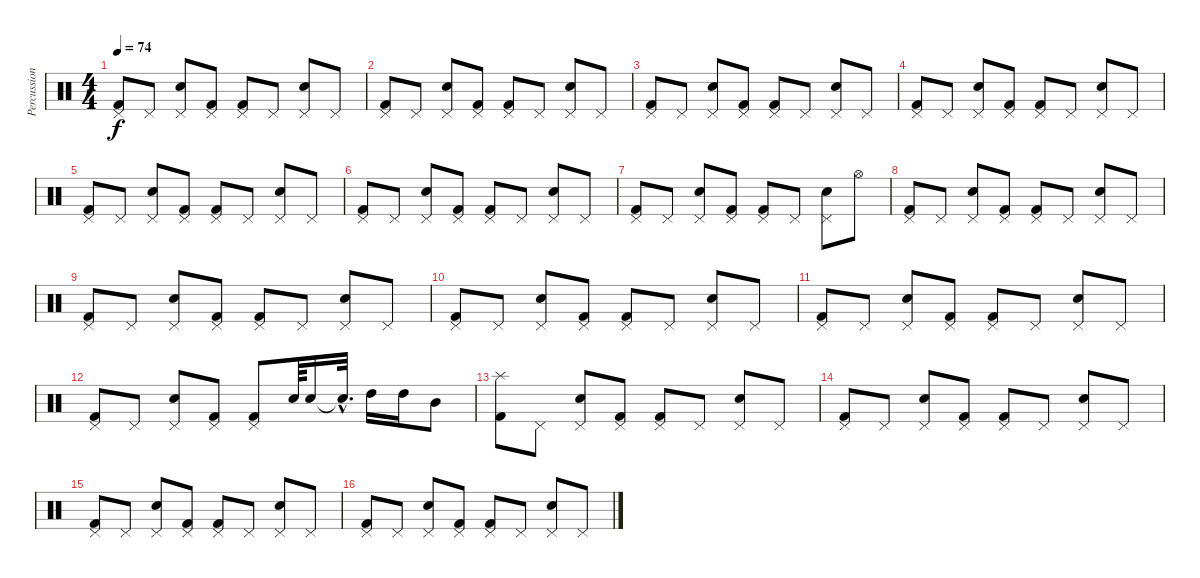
\track ("Percussion" "Percussion") {instrument percussion}
\staff {score}
\articulation defaults
\ts (4 4)
\tempo 74
\clef neutral
\ks c
("Pedal Hi-Hat (hit)" "Kick (hit) 2").8{dy f} "Pedal Hi-Hat (hit)".8 ("Pedal Hi-Hat (hit)" "Snare (hit) 2").8 ("Pedal Hi-Hat (hit)" "Kick (hit) 2").8 ("Pedal Hi-Hat (hit)" "Kick (hit) 2").8 "Pedal Hi-Hat (hit)".8 ("Pedal Hi-Hat (hit)" "Snare (hit) 2").8 "Pedal Hi-Hat (hit)".8 |
("Pedal Hi-Hat (hit)" "Kick (hit) 2").8 "Pedal Hi-Hat (hit)".8 ("Pedal Hi-Hat (hit)" "Snare (hit) 2").8 ("Pedal Hi-Hat (hit)" "Kick (hit) 2").8 ("Pedal Hi-Hat (hit)" "Kick (hit) 2").8 "Pedal Hi-Hat (hit)".8 ("Pedal Hi-Hat (hit)" "Snare (hit) 2").8 "Pedal Hi-Hat (hit)".8 |
("Pedal Hi-Hat (hit)" "Kick (hit) 2").8 "Pedal Hi-Hat (hit)".8 ("Pedal Hi-Hat (hit)" "Snare (hit) 2").8 ("Pedal Hi-Hat (hit)" "Kick (hit) 2").8 ("Pedal Hi-Hat (hit)" "Kick (hit) 2").8 "Pedal Hi-Hat (hit)".8 ("Pedal Hi-Hat (hit)" "Snare (hit) 2").8 "Pedal Hi-Hat (hit)".8 |
("Pedal Hi-Hat (hit)" "Kick (hit) 2").8 "Pedal Hi-Hat (hit)".8 ("Pedal Hi-Hat (hit)" "Snare (hit) 2").8 ("Pedal Hi-Hat (hit)" "Kick (hit) 2").8 ("Pedal Hi-Hat (hit)" "Kick (hit) 2").8 "Pedal Hi-Hat (hit)".8 ("Pedal Hi-Hat (hit)" "Snare (hit) 2").8 "Pedal Hi-Hat (hit)".8 |
("Pedal Hi-Hat (hit)" "Kick (hit) 2").8 "Pedal Hi-Hat (hit)".8 ("Pedal Hi-Hat (hit)" "Snare (hit) 2").8 ("Pedal Hi-Hat (hit)" "Kick (hit) 2").8 ("Pedal Hi-Hat (hit)" "Kick (hit) 2").8 "Pedal Hi-Hat (hit)".8 ("Pedal Hi-Hat (hit)" "Snare (hit) 2").8 "Pedal Hi-Hat (hit)".8 |
("Pedal Hi-Hat (hit)" "Kick (hit) 2").8 "Pedal Hi-Hat (hit)".8 ("Pedal Hi-Hat (hit)" "Snare (hit) 2").8 ("Pedal Hi-Hat (hit)" "Kick (hit) 2").8 ("Pedal Hi-Hat (hit)" "Kick (hit) 2").8 "Pedal Hi-Hat (hit)".8 ("Pedal Hi-Hat (hit)" "Snare (hit) 2").8 "Pedal Hi-Hat (hit)".8 |
("Pedal Hi-Hat (hit)" "Kick (hit) 2").8 "Pedal Hi-Hat (hit)".8 ("Pedal Hi-Hat (hit)" "Snare (hit) 2").8 ("Pedal Hi-Hat (hit)" "Kick (hit) 2").8 ("Pedal Hi-Hat (hit)" "Kick (hit) 2").8 "Pedal Hi-Hat (hit)".8 ("Pedal Hi-Hat (hit)" "Snare (hit) 2").8 "Hi-Hat (open)".8 |
("Pedal Hi-Hat (hit)" "Kick (hit) 2").8 "Pedal Hi-Hat (hit)".8 ("Pedal Hi-Hat (hit)" "Snare (hit) 2").8 ("Pedal Hi-Hat (hit)" "Kick (hit) 2").8 ("Pedal Hi-Hat (hit)" "Kick (hit) 2").8 "Pedal Hi-Hat (hit)".8 ("Pedal Hi-Hat (hit)" "Snare (hit) 2").8 "Pedal Hi-Hat (hit)".8 |
("Pedal Hi-Hat (hit)" "Kick (hit) 2").8 "Pedal Hi-Hat (hit)".8 ("Pedal Hi-Hat (hit)" "Snare (hit) 2").8 ("Pedal Hi-Hat (hit)" "Kick (hit) 2").8 ("Pedal Hi-Hat (hit)" "Kick (hit) 2").8 "Pedal Hi-Hat (hit)".8 ("Pedal Hi-Hat (hit)" "Snare (hit) 2").8 "Pedal Hi-Hat (hit)".8 |
("Pedal Hi-Hat (hit)" "Kick (hit) 2").8 "Pedal Hi-Hat (hit)".8 ("Pedal Hi-Hat (hit)" "Snare (hit) 2").8 ("Pedal Hi-Hat (hit)" "Kick (hit) 2").8 ("Pedal Hi-Hat (hit)" "Kick (hit) 2").8 "Pedal Hi-Hat (hit)".8 ("Pedal Hi-Hat (hit)" "Snare (hit) 2").8 "Pedal Hi-Hat (hit)".8 |
("Pedal Hi-Hat (hit)" "Kick (hit) 2").8 "Pedal Hi-Hat (hit)".8 ("Pedal Hi-Hat (hit)" "Snare (hit) 2").8 ("Pedal Hi-Hat (hit)" "Kick (hit) 2").8 ("Pedal Hi-Hat (hit)" "Kick (hit) 2").8 "Pedal Hi-Hat (hit)".8 ("Pedal Hi-Hat (hit)" "Snare (hit) 2").8 "Pedal Hi-Hat (hit)".8 |
("Pedal Hi-Hat (hit)" "Kick (hit) 2").8 "Pedal Hi-Hat (hit)".8 ("Pedal Hi-Hat (hit)" "Snare (hit) 2").8 ("Pedal Hi-Hat (hit)" "Kick (hit) 2").8 ("Pedal Hi-Hat (hit)" "Kick (hit) 2").8 "Snare (hit) 2".64 "Snare (hit) 2".16 "Snare (hit)"{hac t}.32{d} "High Tom (hit)".16 "High Tom (hit)".16 "Mid Tom (hit)".8 |
("Splash (hit)" "Kick (hit) 2").8 "Pedal Hi-Hat (hit)".8 ("Pedal Hi-Hat (hit)" "Snare (hit) 2").8 ("Pedal Hi-Hat (hit)" "Kick (hit) 2").8 ("Pedal Hi-Hat (hit)" "Kick (hit) 2").8 "Pedal Hi-Hat (hit)".8 ("Pedal Hi-Hat (hit)" "Snare (hit) 2").8 "Pedal Hi-Hat (hit)".8 |
("Pedal Hi-Hat (hit)" "Kick (hit) 2").8 "Pedal Hi-Hat (hit)".8 ("Pedal Hi-Hat (hit)" "Snare (hit) 2").8 ("Pedal Hi-Hat (hit)" "Kick (hit) 2").8 ("Pedal Hi-Hat (hit)" "Kick (hit) 2").8 "Pedal Hi-Hat (hit)".8 ("Pedal Hi-Hat (hit)" "Snare (hit) 2").8 "Pedal Hi-Hat (hit)".8 |
("Pedal Hi-Hat (hit)" "Kick (hit) 2").8 "Pedal Hi-Hat (hit)".8 ("Pedal Hi-Hat (hit)" "Snare (hit) 2").8 ("Pedal Hi-Hat (hit)" "Kick (hit) 2").8 ("Pedal Hi-Hat (hit)" "Kick (hit) 2").8 "Pedal Hi-Hat (hit)".8 ("Pedal Hi-Hat (hit)" "Snare (hit) 2").8 "Pedal Hi-Hat (hit)".8 |
("Pedal Hi-Hat (hit)" "Kick (hit) 2").8 "Pedal Hi-Hat (hit)".8 ("Pedal Hi-Hat (hit)" "Snare (hit) 2").8 ("Pedal Hi-Hat (hit)" "Kick (hit) 2").8 ("Pedal Hi-Hat (hit)" "Kick (hit) 2").8 "Pedal Hi-Hat (hit)".8 ("Pedal Hi-Hat (hit)" "Snare (hit) 2").8 "Pedal Hi-Hat (hit)".8
